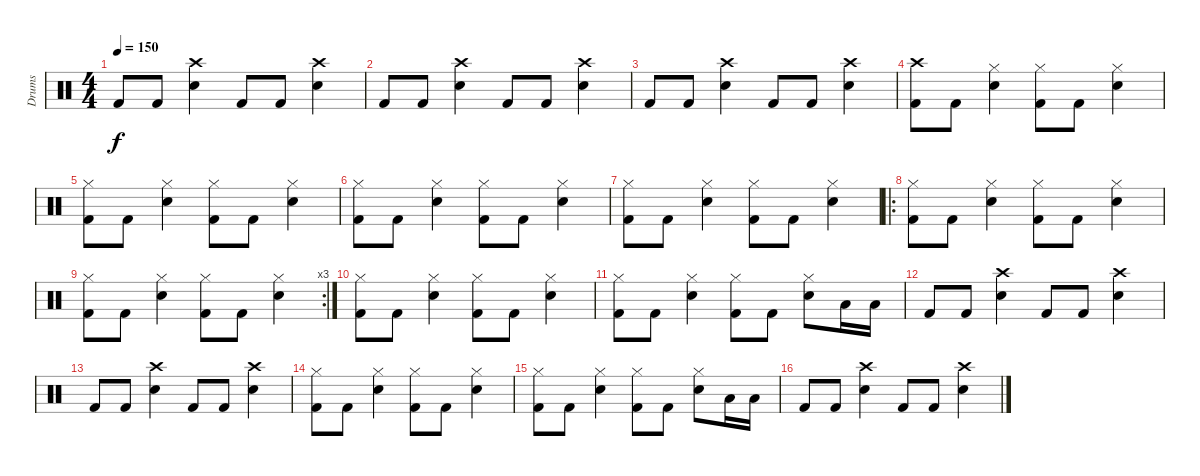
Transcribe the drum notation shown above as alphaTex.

\track ("Drums" "Drums") {instrument percussion}
\staff {score}
\articulation defaults
\ts (4 4)
\tempo 150
\clef neutral
\ks c "Kick (hit) 2".8{dy f} "Kick (hit) 2".8
("Crash high (hit)" "Electric Snare (hit)").4 "Kick (hit) 2".8 "Kick (hit) 2".8 ("Crash high (hit)" "Electric Snare (hit)").4 |
"Kick (hit) 2".8 "Kick (hit) 2".8 ("Crash high (hit)" "Electric Snare (hit)").4 "Kick (hit) 2".8 "Kick (hit) 2".8 ("Crash high (hit)" "Electric Snare (hit)").4 |
"Kick (hit) 2".8 "Kick (hit) 2".8 ("Crash high (hit)" "Electric Snare (hit)").4 "Kick (hit) 2".8 "Kick (hit) 2".8 ("Crash high (hit)" "Electric Snare (hit)").4 |
("Crash high (hit)" "Kick (hit) 2").8 "Kick (hit) 2".8 ("Hi-Hat (closed)" "Electric Snare (hit)").4 ("Hi-Hat (closed)" "Kick (hit) 2").8 "Kick (hit) 2".8 ("Hi-Hat (closed)" "Electric Snare (hit)").4 |
("Hi-Hat (closed)" "Kick (hit) 2").8 "Kick (hit) 2".8 ("Hi-Hat (closed)" "Electric Snare (hit)").4 ("Hi-Hat (closed)" "Kick (hit) 2").8 "Kick (hit) 2".8 ("Hi-Hat (closed)" "Electric Snare (hit)").4 |
("Hi-Hat (closed)" "Kick (hit) 2").8 "Kick (hit) 2".8 ("Hi-Hat (closed)" "Electric Snare (hit)").4 ("Hi-Hat (closed)" "Kick (hit) 2").8 "Kick (hit) 2".8 ("Hi-Hat (closed)" "Electric Snare (hit)").4 |
("Hi-Hat (closed)" "Kick (hit) 2").8 "Kick (hit) 2".8 ("Hi-Hat (closed)" "Electric Snare (hit)").4 ("Hi-Hat (closed)" "Kick (hit) 2").8 "Kick (hit) 2".8 ("Hi-Hat (closed)" "Electric Snare (hit)").4 |
\ro
("Hi-Hat (closed)" "Kick (hit) 2").8 "Kick (hit) 2".8 ("Hi-Hat (closed)" "Electric Snare (hit)").4 ("Hi-Hat (closed)" "Kick (hit) 2").8 "Kick (hit) 2".8 ("Hi-Hat (closed)" "Electric Snare (hit)").4 |
\rc 3
("Hi-Hat (closed)" "Kick (hit) 2").8 "Kick (hit) 2".8 ("Hi-Hat (closed)" "Electric Snare (hit)").4 ("Hi-Hat (closed)" "Kick (hit) 2").8 "Kick (hit) 2".8 ("Hi-Hat (closed)" "Electric Snare (hit)").4 |
("Hi-Hat (closed)" "Kick (hit) 2").8 "Kick (hit) 2".8 ("Hi-Hat (closed)" "Electric Snare (hit)").4 ("Hi-Hat (closed)" "Kick (hit) 2").8 "Kick (hit) 2".8 ("Hi-Hat (closed)" "Electric Snare (hit)").4 |
("Hi-Hat (closed)" "Kick (hit) 2").8 "Kick (hit) 2".8 ("Hi-Hat (closed)" "Electric Snare (hit)").4 ("Hi-Hat (closed)" "Kick (hit) 2").8 "Kick (hit) 2".8 ("Hi-Hat (closed)" "Electric Snare (hit)").8 "Low Floor Tom (hit)".16 "Low Floor Tom (hit)".16 |
"Kick (hit) 2".8 "Kick (hit) 2".8 ("Crash high (hit)" "Electric Snare (hit)").4 "Kick (hit) 2".8 "Kick (hit) 2".8 ("Crash high (hit)" "Electric Snare (hit)").4 |
"Kick (hit) 2".8 "Kick (hit) 2".8 ("Crash high (hit)" "Electric Snare (hit)").4 "Kick (hit) 2".8 "Kick (hit) 2".8 ("Crash high (hit)" "Electric Snare (hit)").4 |
("Hi-Hat (closed)" "Kick (hit) 2").8 "Kick (hit) 2".8 ("Hi-Hat (closed)" "Electric Snare (hit)").4 ("Hi-Hat (closed)" "Kick (hit) 2").8 "Kick (hit) 2".8 ("Hi-Hat (closed)" "Electric Snare (hit)").4 |
("Hi-Hat (closed)" "Kick (hit) 2").8 "Kick (hit) 2".8 ("Hi-Hat (closed)" "Electric Snare (hit)").4 ("Hi-Hat (closed)" "Kick (hit) 2").8 "Kick (hit) 2".8 ("Hi-Hat (closed)" "Electric Snare (hit)").8 "Low Floor Tom (hit)".16 "Low Floor Tom (hit)".16 |
"Kick (hit) 2".8 "Kick (hit) 2".8 ("Crash high (hit)" "Electric Snare (hit)").4 "Kick (hit) 2".8 "Kick (hit) 2".8 ("Crash high (hit)" "Electric Snare (hit)").4
